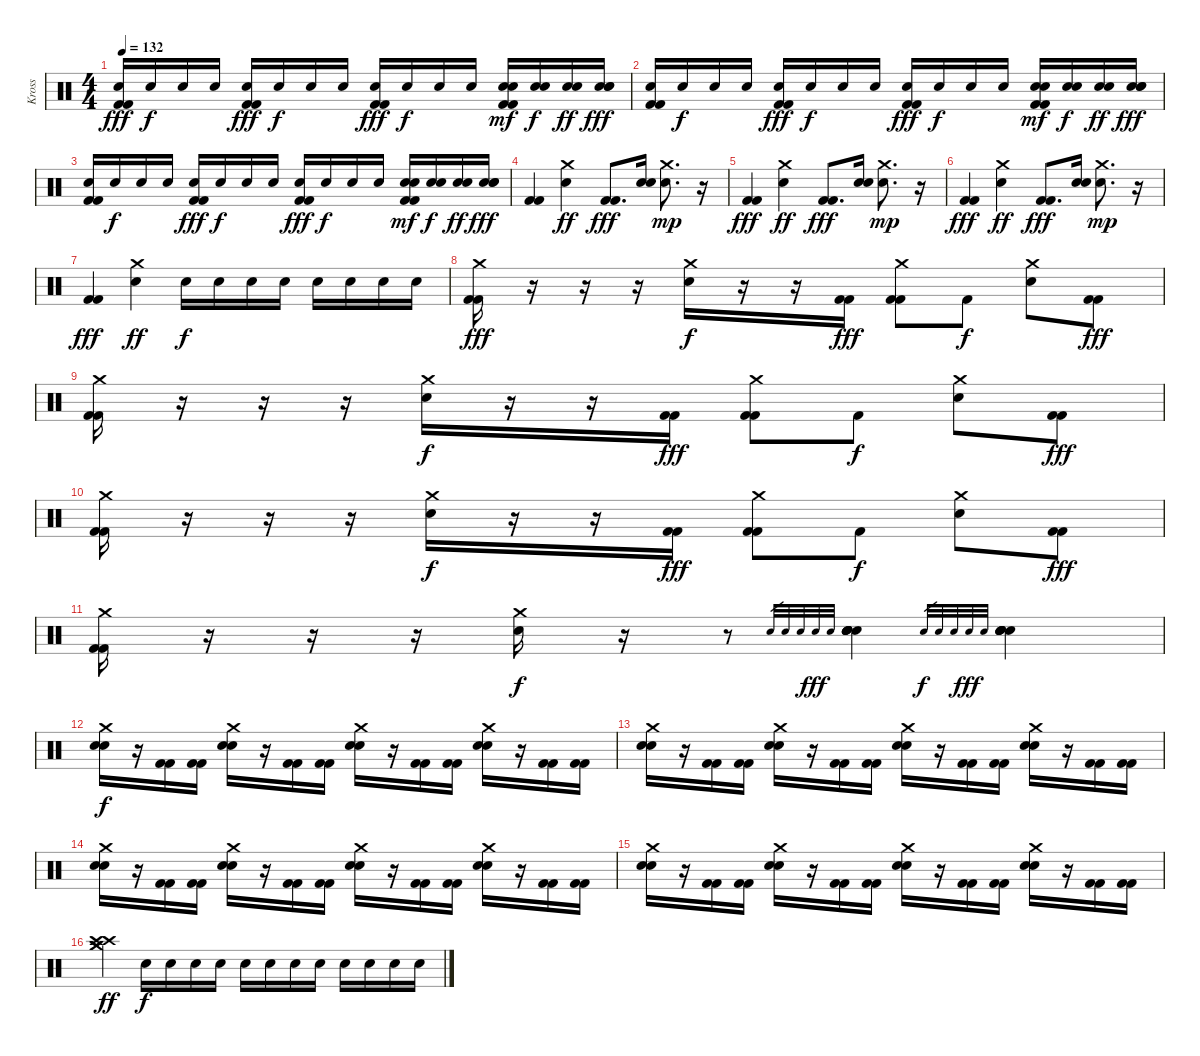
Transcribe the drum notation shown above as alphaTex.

\track ("Kross" "Kross") {instrument percussion}
\staff {score}
\articulation defaults
\ts (4 4)
\tempo 132
\clef neutral
\ks c
("Kick (hit) 2" "Kick (hit) 2" "Electric Snare (hit)").16{dy fff} "Electric Snare (hit)".16{dy f} "Electric Snare (hit)".16 "Electric Snare (hit)".16 ("Kick (hit) 2" "Kick (hit) 2" "Electric Snare (hit)").16{dy fff} "Electric Snare (hit)".16{dy f} "Electric Snare (hit)".16 "Electric Snare (hit)".16 ("Kick (hit) 2" "Kick (hit) 2" "Electric Snare (hit)").16{dy fff} "Electric Snare (hit)".16{dy f} "Electric Snare (hit)".16 "Electric Snare (hit)".16 ("Kick (hit) 2" "Kick (hit) 2" "Electric Snare (hit)" "Electric Snare (hit)").16{dy mf} ("Electric Snare (hit)" "Electric Snare (hit)").16{dy f} ("Electric Snare (hit)" "Electric Snare (hit)").16{dy ff} ("Electric Snare (hit)" "Electric Snare (hit)" "Electric Snare (hit)").16{dy fff} |
("Kick (hit) 2" "Kick (hit) 2" "Electric Snare (hit)").16 "Electric Snare (hit)".16{dy f} "Electric Snare (hit)".16 "Electric Snare (hit)".16 ("Kick (hit) 2" "Kick (hit) 2" "Electric Snare (hit)").16{dy fff} "Electric Snare (hit)".16{dy f} "Electric Snare (hit)".16 "Electric Snare (hit)".16 ("Kick (hit) 2" "Kick (hit) 2" "Electric Snare (hit)").16{dy fff} "Electric Snare (hit)".16{dy f} "Electric Snare (hit)".16 "Electric Snare (hit)".16 ("Kick (hit) 2" "Kick (hit) 2" "Electric Snare (hit)" "Electric Snare (hit)").16{dy mf} ("Electric Snare (hit)" "Electric Snare (hit)").16{dy f} ("Electric Snare (hit)" "Electric Snare (hit)").16{dy ff} ("Electric Snare (hit)" "Electric Snare (hit)" "Electric Snare (hit)").16{dy fff} |
("Kick (hit) 2" "Kick (hit) 2" "Electric Snare (hit)").16 "Electric Snare (hit)".16{dy f} "Electric Snare (hit)".16 "Electric Snare (hit)".16 ("Kick (hit) 2" "Kick (hit) 2" "Electric Snare (hit)").16{dy fff} "Electric Snare (hit)".16{dy f} "Electric Snare (hit)".16 "Electric Snare (hit)".16 ("Kick (hit) 2" "Kick (hit) 2" "Electric Snare (hit)").16{dy fff} "Electric Snare (hit)".16{dy f} "Electric Snare (hit)".16 "Electric Snare (hit)".16 ("Kick (hit) 2" "Kick (hit) 2" "Electric Snare (hit)" "Electric Snare (hit)").16{dy mf} ("Electric Snare (hit)" "Electric Snare (hit)").16{dy f} ("Electric Snare (hit)" "Electric Snare (hit)").16{dy ff} ("Electric Snare (hit)" "Electric Snare (hit)" "Electric Snare (hit)").16{dy fff} |
("Kick (hit) 2" "Kick (hit) 2").4 ("Crash medium (hit)" "Electric Snare (hit)").4{dy ff} ("Kick (hit) 2" "Kick (hit) 2").8{d dy fff} ("Electric Snare (hit)" "Electric Snare (hit)").16 ("Crash medium (hit)" "Electric Snare (hit)").8{d dy mp} r.16 |
("Kick (hit) 2" "Kick (hit) 2").4{dy fff} ("Crash medium (hit)" "Electric Snare (hit)").4{dy ff} ("Kick (hit) 2" "Kick (hit) 2").8{d dy fff} ("Electric Snare (hit)" "Electric Snare (hit)").16 ("Crash medium (hit)" "Electric Snare (hit)").8{d dy mp} r.16 |
("Kick (hit) 2" "Kick (hit) 2").4{dy fff} ("Crash medium (hit)" "Electric Snare (hit)").4{dy ff} ("Kick (hit) 2" "Kick (hit) 2").8{d dy fff} ("Electric Snare (hit)" "Electric Snare (hit)").16 ("Crash medium (hit)" "Electric Snare (hit)").8{d dy mp} r.16 |
("Kick (hit) 2" "Kick (hit) 2").4{dy fff} ("Crash medium (hit)" "Electric Snare (hit)").4{dy ff} "Electric Snare (hit)".16{dy f} "Electric Snare (hit)".16 "Electric Snare (hit)".16 "Electric Snare (hit)".16 "Electric Snare (hit)".16 "Electric Snare (hit)".16 "Electric Snare (hit)".16 "Electric Snare (hit)".16 |
("Crash medium (hit)" "Kick (hit) 2" "Kick (hit) 2").16{dy fff} r.16 r.16 r.16 ("Crash medium (hit)" "Electric Snare (hit)").16{dy f} r.16 r.16 ("Kick (hit) 2" "Kick (hit) 2").16{dy fff} ("Crash medium (hit)" "Kick (hit) 2" "Kick (hit) 2").8 "Kick (hit) 2".8{dy f} ("Crash medium (hit)" "Electric Snare (hit)").8 ("Kick (hit) 2" "Kick (hit) 2").8{dy fff} |
("Crash medium (hit)" "Kick (hit) 2" "Kick (hit) 2").16 r.16 r.16 r.16 ("Crash medium (hit)" "Electric Snare (hit)").16{dy f} r.16 r.16 ("Kick (hit) 2" "Kick (hit) 2").16{dy fff} ("Crash medium (hit)" "Kick (hit) 2" "Kick (hit) 2").8 "Kick (hit) 2".8{dy f} ("Crash medium (hit)" "Electric Snare (hit)").8 ("Kick (hit) 2" "Kick (hit) 2").8{dy fff} |
("Crash medium (hit)" "Kick (hit) 2" "Kick (hit) 2").16 r.16 r.16 r.16 ("Crash medium (hit)" "Electric Snare (hit)").16{dy f} r.16 r.16 ("Kick (hit) 2" "Kick (hit) 2").16{dy fff} ("Crash medium (hit)" "Kick (hit) 2" "Kick (hit) 2").8 "Kick (hit) 2".8{dy f} ("Crash medium (hit)" "Electric Snare (hit)").8 ("Kick (hit) 2" "Kick (hit) 2").8{dy fff} |
("Crash medium (hit)" "Kick (hit) 2" "Kick (hit) 2").16 r.16 r.16 r.16 ("Crash medium (hit)" "Electric Snare (hit)").16{dy f} r.16 r.8 "Electric Snare (hit)".32{gr} "Electric Snare (hit)".32{gr} "Electric Snare (hit)".32{gr} "Electric Snare (hit)".32{gr dy fff} "Electric Snare (hit)".32{gr} ("Electric Snare (hit)" "Electric Snare (hit)" "Electric Snare (hit)" "Electric Snare (hit)" "Electric Snare (hit)").4 "Snare (hit) 2".32{gr dy f} "Snare (hit) 2".32{gr} "Snare (hit) 2".32{gr} "Snare (hit) 2".32{gr dy fff} "Snare (hit) 2".32{gr} ("Electric Snare (hit)" "Electric Snare (hit)" "Electric Snare (hit)" "Electric Snare (hit)" "Electric Snare (hit)").4 |
("Crash medium (hit)" "Electric Snare (hit)" "Electric Snare (hit)").16{dy f} r.16 ("Kick (hit) 2" "Kick (hit) 2").16 ("Kick (hit) 2" "Kick (hit) 2").16 ("Crash medium (hit)" "Electric Snare (hit)" "Electric Snare (hit)").16 r.16 ("Kick (hit) 2" "Kick (hit) 2").16 ("Kick (hit) 2" "Kick (hit) 2").16 ("Crash medium (hit)" "Electric Snare (hit)" "Electric Snare (hit)").16 r.16 ("Kick (hit) 2" "Kick (hit) 2").16 ("Kick (hit) 2" "Kick (hit) 2").16 ("Crash medium (hit)" "Electric Snare (hit)" "Electric Snare (hit)").16 r.16 ("Kick (hit) 2" "Kick (hit) 2").16 ("Kick (hit) 2" "Kick (hit) 2").16 |
("Crash medium (hit)" "Electric Snare (hit)" "Electric Snare (hit)").16 r.16 ("Kick (hit) 2" "Kick (hit) 2").16 ("Kick (hit) 2" "Kick (hit) 2").16 ("Crash medium (hit)" "Electric Snare (hit)" "Electric Snare (hit)").16 r.16 ("Kick (hit) 2" "Kick (hit) 2").16 ("Kick (hit) 2" "Kick (hit) 2").16 ("Crash medium (hit)" "Electric Snare (hit)" "Electric Snare (hit)").16 r.16 ("Kick (hit) 2" "Kick (hit) 2").16 ("Kick (hit) 2" "Kick (hit) 2").16 ("Crash medium (hit)" "Electric Snare (hit)" "Electric Snare (hit)").16 r.16 ("Kick (hit) 2" "Kick (hit) 2").16 ("Kick (hit) 2" "Kick (hit) 2").16 |
("Crash medium (hit)" "Electric Snare (hit)" "Electric Snare (hit)").16 r.16 ("Kick (hit) 2" "Kick (hit) 2").16 ("Kick (hit) 2" "Kick (hit) 2").16 ("Crash medium (hit)" "Electric Snare (hit)" "Electric Snare (hit)").16 r.16 ("Kick (hit) 2" "Kick (hit) 2").16 ("Kick (hit) 2" "Kick (hit) 2").16 ("Crash medium (hit)" "Electric Snare (hit)" "Electric Snare (hit)").16 r.16 ("Kick (hit) 2" "Kick (hit) 2").16 ("Kick (hit) 2" "Kick (hit) 2").16 ("Crash medium (hit)" "Electric Snare (hit)" "Electric Snare (hit)").16 r.16 ("Kick (hit) 2" "Kick (hit) 2").16 ("Kick (hit) 2" "Kick (hit) 2").16 |
("Crash medium (hit)" "Electric Snare (hit)" "Electric Snare (hit)").16 r.16 ("Kick (hit) 2" "Kick (hit) 2").16 ("Kick (hit) 2" "Kick (hit) 2").16 ("Crash medium (hit)" "Electric Snare (hit)" "Electric Snare (hit)").16 r.16 ("Kick (hit) 2" "Kick (hit) 2").16 ("Kick (hit) 2" "Kick (hit) 2").16 ("Crash medium (hit)" "Electric Snare (hit)" "Electric Snare (hit)").16 r.16 ("Kick (hit) 2" "Kick (hit) 2").16 ("Kick (hit) 2" "Kick (hit) 2").16 ("Crash medium (hit)" "Electric Snare (hit)" "Electric Snare (hit)").16 r.16 ("Kick (hit) 2" "Kick (hit) 2").16 ("Kick (hit) 2" "Kick (hit) 2").16 |
("Crash medium (hit)" "Crash high (hit)" "Crash medium (hit)" "Crash high (hit)").4{dy ff} "Electric Snare (hit)".16{dy f} "Electric Snare (hit)".16 "Electric Snare (hit)".16 "Electric Snare (hit)".16 "Electric Snare (hit)".16 "Electric Snare (hit)".16 "Electric Snare (hit)".16 "Electric Snare (hit)".16 "Electric Snare (hit)".16 "Electric Snare (hit)".16 "Electric Snare (hit)".16 "Electric Snare (hit)".16
